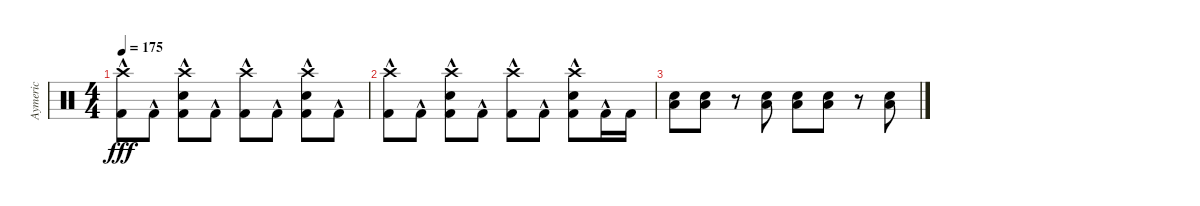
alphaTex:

\track ("Aymeric" "Aymeric") {instrument percussion}
\staff {score}
\articulation defaults
\ts (4 4)
\tempo 175
\clef neutral
\ks c
("Crash high (hit)" "Kick (hit) 2"{hac}).8{dy fff} "Kick (hit) 2"{hac}.8 ("Crash high (hit)" "Snare (hit) 2" "Kick (hit) 2"{hac}).8 "Kick (hit) 2"{hac}.8 ("Crash high (hit)" "Kick (hit) 2"{hac}).8 "Kick (hit) 2"{hac}.8 ("Crash high (hit)" "Snare (hit) 2" "Kick (hit) 2"{hac}).8 "Kick (hit) 2"{hac}.8 |
("Crash high (hit)" "Kick (hit) 2"{hac}).8 "Kick (hit) 2"{hac}.8 ("Crash high (hit)" "Snare (hit) 2" "Kick (hit) 2"{hac}).8 "Kick (hit) 2"{hac}.8 ("Crash high (hit)" "Kick (hit) 2"{hac}).8 "Kick (hit) 2"{hac}.8 ("Crash high (hit)" "Snare (hit) 2" "Kick (hit) 2"{hac}).8 "Kick (hit) 2"{hac}.16 "Kick (hit) 2".16 |
("Low Floor Tom (hit)" "Snare (hit) 2").8 ("Low Floor Tom (hit)" "Snare (hit) 2").8 r.8 ("Low Floor Tom (hit)" "Snare (hit) 2").8 ("Low Floor Tom (hit)" "Snare (hit) 2").8 ("Low Floor Tom (hit)" "Snare (hit) 2").8 r.8 ("Low Floor Tom (hit)" "Snare (hit) 2").8
